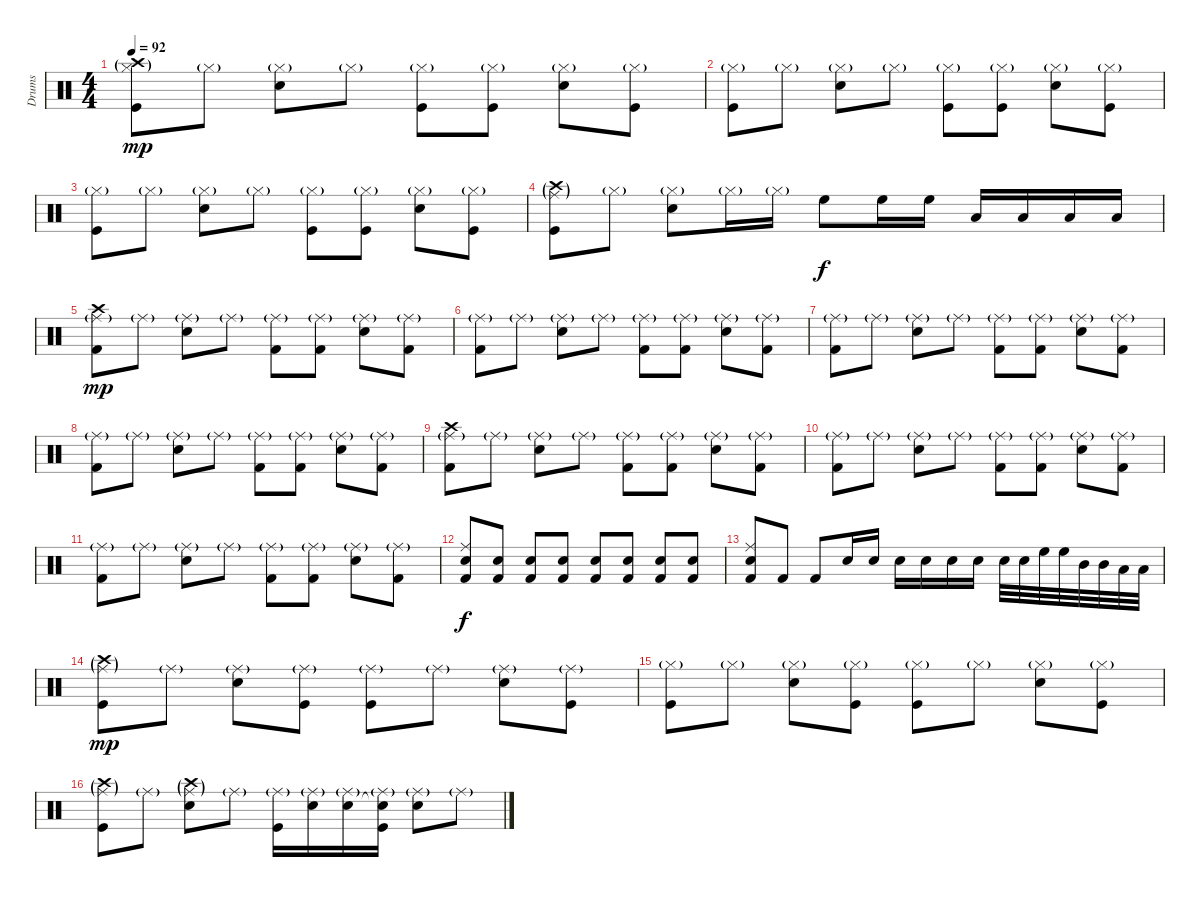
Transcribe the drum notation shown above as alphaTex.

\track ("Drums" "Drums") {instrument percussion}
\staff {score}
\articulation defaults
\ts (4 4)
\tempo 92
\clef neutral
\ks c
("Hi-Hat (closed)"{g} "Crash high (hit)"{g} "Kick (hit)").8{dy mp} "Hi-Hat (closed)"{g}.8 ("Hi-Hat (closed)"{g} "Snare (hit) 2").8 "Hi-Hat (closed)"{g}.8 ("Hi-Hat (closed)"{g} "Kick (hit)").8 ("Hi-Hat (closed)"{g} "Kick (hit)").8 ("Hi-Hat (closed)"{g} "Snare (hit) 2").8 ("Hi-Hat (closed)"{g} "Kick (hit)").8 |
("Hi-Hat (closed)"{g} "Kick (hit)").8 "Hi-Hat (closed)"{g}.8 ("Hi-Hat (closed)"{g} "Snare (hit) 2").8 "Hi-Hat (closed)"{g}.8 ("Hi-Hat (closed)"{g} "Kick (hit)").8 ("Hi-Hat (closed)"{g} "Kick (hit)").8 ("Hi-Hat (closed)"{g} "Snare (hit) 2").8 ("Hi-Hat (closed)"{g} "Kick (hit)").8 |
("Hi-Hat (closed)"{g} "Kick (hit)").8 "Hi-Hat (closed)"{g}.8 ("Hi-Hat (closed)"{g} "Snare (hit) 2").8 "Hi-Hat (closed)"{g}.8 ("Hi-Hat (closed)"{g} "Kick (hit)").8 ("Hi-Hat (closed)"{g} "Kick (hit)").8 ("Hi-Hat (closed)"{g} "Snare (hit) 2").8 ("Hi-Hat (closed)"{g} "Kick (hit)").8 |
("Ride (middle)"{g} "Crash high (hit)"{g} "Kick (hit)").8 "Hi-Hat (closed)"{g}.8 ("Hi-Hat (closed)"{g} "Snare (hit) 2").8 "Hi-Hat (closed)"{g}.16 "Hi-Hat (closed)"{g}.16 "High Floor Tom (hit)".8{dy f} "High Floor Tom (hit)".16 "High Floor Tom (hit)".16 "Low Tom (hit)".16 "Low Tom (hit)".16 "Low Floor Tom (hit)".16 "Low Floor Tom (hit)".16 |
("Ride (middle)"{g} "Crash high (hit)" "Kick (hit) 2").8{dy mp} "Ride (middle)"{g}.8 ("Ride (middle)"{g} "Snare (hit) 2").8 "Ride (middle)"{g}.8 ("Ride (middle)"{g} "Kick (hit) 2").8 ("Ride (middle)"{g} "Kick (hit) 2").8 ("Ride (middle)"{g} "Snare (hit) 2").8 ("Ride (middle)"{g} "Kick (hit) 2").8 |
("Ride (middle)"{g} "Kick (hit) 2").8 "Ride (middle)"{g}.8 ("Ride (middle)"{g} "Snare (hit) 2").8 "Ride (middle)"{g}.8 ("Ride (middle)"{g} "Kick (hit) 2").8 ("Ride (middle)"{g} "Kick (hit) 2").8 ("Ride (middle)"{g} "Snare (hit) 2").8 ("Ride (middle)"{g} "Kick (hit) 2").8 |
("Ride (middle)"{g} "Kick (hit) 2").8 "Ride (middle)"{g}.8 ("Ride (middle)"{g} "Snare (hit) 2").8 "Ride (middle)"{g}.8 ("Ride (middle)"{g} "Kick (hit) 2").8 ("Ride (middle)"{g} "Kick (hit) 2").8 ("Ride (middle)"{g} "Snare (hit) 2").8 ("Ride (middle)"{g} "Kick (hit) 2").8 |
("Ride (middle)"{g} "Kick (hit) 2").8 "Ride (middle)"{g}.8 ("Ride (middle)"{g} "Snare (hit) 2").8 "Ride (middle)"{g}.8 ("Ride (middle)"{g} "Kick (hit) 2").8 ("Ride (middle)"{g} "Kick (hit) 2").8 ("Ride (middle)"{g} "Snare (hit) 2").8 ("Ride (middle)"{g} "Kick (hit) 2").8 |
("Ride (middle)"{g} "Crash high (hit)" "Kick (hit) 2").8 "Ride (middle)"{g}.8 ("Ride (middle)"{g} "Snare (hit) 2").8 "Ride (middle)"{g}.8 ("Ride (middle)"{g} "Kick (hit) 2").8 ("Ride (middle)"{g} "Kick (hit) 2").8 ("Ride (middle)"{g} "Snare (hit) 2").8 ("Ride (middle)"{g} "Kick (hit) 2").8 |
("Ride (middle)"{g} "Kick (hit) 2").8 "Ride (middle)"{g}.8 ("Ride (middle)"{g} "Snare (hit) 2").8 "Ride (middle)"{g}.8 ("Ride (middle)"{g} "Kick (hit) 2").8 ("Ride (middle)"{g} "Kick (hit) 2").8 ("Ride (middle)"{g} "Snare (hit) 2").8 ("Ride (middle)"{g} "Kick (hit) 2").8 |
("Ride (middle)"{g} "Kick (hit) 2").8 "Ride (middle)"{g}.8 ("Ride (middle)"{g} "Snare (hit) 2").8 "Ride (middle)"{g}.8 ("Ride (middle)"{g} "Kick (hit) 2").8 ("Ride (middle)"{g} "Kick (hit) 2").8 ("Ride (middle)"{g} "Snare (hit) 2").8 ("Ride (middle)"{g} "Kick (hit) 2").8 |
("Ride (middle)" "Snare (hit) 2" "Kick (hit) 2").8{dy f} ("Snare (hit) 2" "Kick (hit) 2").8 ("Snare (hit) 2" "Kick (hit) 2").8 ("Snare (hit) 2" "Kick (hit) 2").8 ("Snare (hit) 2" "Kick (hit) 2").8 ("Snare (hit) 2" "Kick (hit) 2").8 ("Snare (hit) 2" "Kick (hit) 2").8 ("Snare (hit) 2" "Kick (hit) 2").8 |
("Ride (middle)" "Snare (hit) 2" "Kick (hit) 2").8 "Kick (hit) 2".8 "Kick (hit) 2".8 "Snare (hit) 2".16 "Snare (hit) 2".16 "Snare (hit) 2".16 "Snare (hit) 2".16 "Snare (hit) 2".16 "Snare (hit) 2".16 "Snare (hit) 2".32 "Snare (hit) 2".32 "High Floor Tom (hit)".32 "High Floor Tom (hit)".32 "Mid Tom (hit)".32 "Mid Tom (hit)".32 "Low Tom (hit)".32 "Low Tom (hit)".32 |
("Ride (middle)"{g} "Crash high (hit)"{g} "Kick (hit)").8{dy mp} "Ride (middle)"{g}.8 ("Ride (middle)"{g} "Snare (hit) 2").8 ("Ride (middle)"{g} "Kick (hit)").8 ("Ride (middle)"{g} "Kick (hit)").8 "Ride (middle)"{g}.8 ("Ride (middle)"{g} "Snare (hit) 2").8 ("Ride (middle)"{g} "Kick (hit)").8 |
("Hi-Hat (closed)"{g} "Kick (hit)").8 "Hi-Hat (closed)"{g}.8 ("Hi-Hat (closed)"{g} "Snare (hit) 2").8 ("Hi-Hat (closed)"{g} "Kick (hit)").8 ("Hi-Hat (closed)"{g} "Kick (hit)").8 "Hi-Hat (closed)"{g}.8 ("Hi-Hat (closed)"{g} "Snare (hit) 2").8 ("Hi-Hat (closed)"{g} "Kick (hit)").8 |
("Ride (middle)"{g} "Crash high (hit)"{g} "Kick (hit)").8 "Ride (middle)"{g}.8 ("Ride (middle)"{g} "Crash high (hit)"{g} "Snare (hit) 2").8 "Ride (middle)"{g}.8 ("Ride (middle)"{g} "Kick (hit)").16 ("Ride (middle)"{g} "Snare (hit) 2").16 ("Ride (middle)"{g} "Snare (hit) 2").16 ("Ride (middle)"{g} "Snare (hit)"{t} "Kick (hit)").16 ("Ride (middle)"{g} "Snare (hit) 2").8 "Ride (middle)"{g}.8
